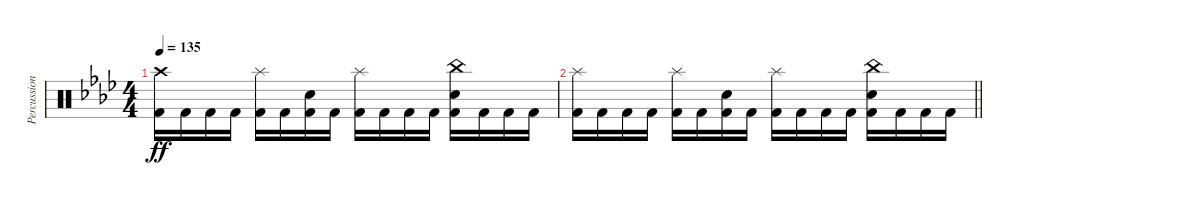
\track ("Percussion" "Percussion") {instrument percussion}
\staff {score}
\articulation defaults
\ts (4 4)
\tempo 135
\clef neutral
\ks fminor
("Crash high (hit)" "Kick (hit) 2").16{dy ff} "Kick (hit) 2".16 "Kick (hit) 2".16 "Kick (hit) 2".16 ("Splash (hit)" "Kick (hit) 2").16 "Kick (hit) 2".16 ("Electric Snare (hit)" "Kick (hit) 2").16 "Kick (hit) 2".16 ("Splash (hit)" "Kick (hit) 2").16 "Kick (hit) 2".16 "Kick (hit) 2".16 "Kick (hit) 2".16 ("China (hit)" "Electric Snare (hit)" "Kick (hit) 2").16 "Kick (hit) 2".16 "Kick (hit) 2".16 "Kick (hit) 2".16 |
\barLineRight lightlight
("Splash (hit)" "Kick (hit) 2").16 "Kick (hit) 2".16 "Kick (hit) 2".16 "Kick (hit) 2".16 ("Splash (hit)" "Kick (hit) 2").16 "Kick (hit) 2".16 ("Electric Snare (hit)" "Kick (hit) 2").16 "Kick (hit) 2".16 ("Splash (hit)" "Kick (hit) 2").16 "Kick (hit) 2".16 "Kick (hit) 2".16 "Kick (hit) 2".16 ("China (hit)" "Electric Snare (hit)" "Kick (hit) 2").16 "Kick (hit) 2".16 "Kick (hit) 2".16 "Kick (hit) 2".16
